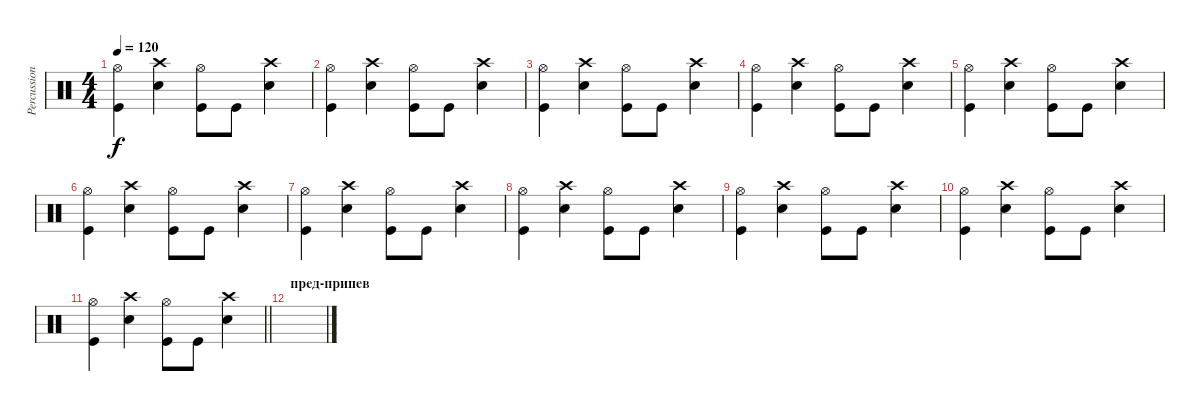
\track ("Percussion" "Percussion") {instrument percussion}
\staff {score}
\articulation defaults
\ts (4 4)
\tempo 120
\clef neutral
\ks c
("Hi-Hat (open)" "Kick (hit)").4{dy f} ("Crash high (hit)" "Snare (hit) 2").4 ("Hi-Hat (open)" "Kick (hit)").8 "Kick (hit)".8 ("Crash high (hit)" "Snare (hit) 2").4 |
("Hi-Hat (open)" "Kick (hit)").4 ("Crash high (hit)" "Snare (hit) 2").4 ("Hi-Hat (open)" "Kick (hit)").8 "Kick (hit)".8 ("Crash high (hit)" "Snare (hit) 2").4 |
("Hi-Hat (open)" "Kick (hit)").4 ("Crash high (hit)" "Snare (hit) 2").4 ("Hi-Hat (open)" "Kick (hit)").8 "Kick (hit)".8 ("Crash high (hit)" "Snare (hit) 2").4 |
("Hi-Hat (open)" "Kick (hit)").4 ("Crash high (hit)" "Snare (hit) 2").4 ("Hi-Hat (open)" "Kick (hit)").8 "Kick (hit)".8 ("Crash high (hit)" "Snare (hit) 2").4 |
("Hi-Hat (open)" "Kick (hit)").4 ("Crash high (hit)" "Snare (hit) 2").4 ("Hi-Hat (open)" "Kick (hit)").8 "Kick (hit)".8 ("Crash high (hit)" "Snare (hit) 2").4 |
("Hi-Hat (open)" "Kick (hit)").4 ("Crash high (hit)" "Snare (hit) 2").4 ("Hi-Hat (open)" "Kick (hit)").8 "Kick (hit)".8 ("Crash high (hit)" "Snare (hit) 2").4 |
("Hi-Hat (open)" "Kick (hit)").4 ("Crash high (hit)" "Snare (hit) 2").4 ("Hi-Hat (open)" "Kick (hit)").8 "Kick (hit)".8 ("Crash high (hit)" "Snare (hit) 2").4 |
("Hi-Hat (open)" "Kick (hit)").4 ("Crash high (hit)" "Snare (hit) 2").4 ("Hi-Hat (open)" "Kick (hit)").8 "Kick (hit)".8 ("Crash high (hit)" "Snare (hit) 2").4 |
("Hi-Hat (open)" "Kick (hit)").4 ("Crash high (hit)" "Snare (hit) 2").4 ("Hi-Hat (open)" "Kick (hit)").8 "Kick (hit)".8 ("Crash high (hit)" "Snare (hit) 2").4 |
("Hi-Hat (open)" "Kick (hit)").4 ("Crash high (hit)" "Snare (hit) 2").4 ("Hi-Hat (open)" "Kick (hit)").8 "Kick (hit)".8 ("Crash high (hit)" "Snare (hit) 2").4 |
\barLineRight lightlight
("Hi-Hat (open)" "Kick (hit)").4 ("Crash high (hit)" "Snare (hit) 2").4 ("Hi-Hat (open)" "Kick (hit)").8 "Kick (hit)".8 ("Crash high (hit)" "Snare (hit) 2").4 |
\section ("" "пред-припев")
